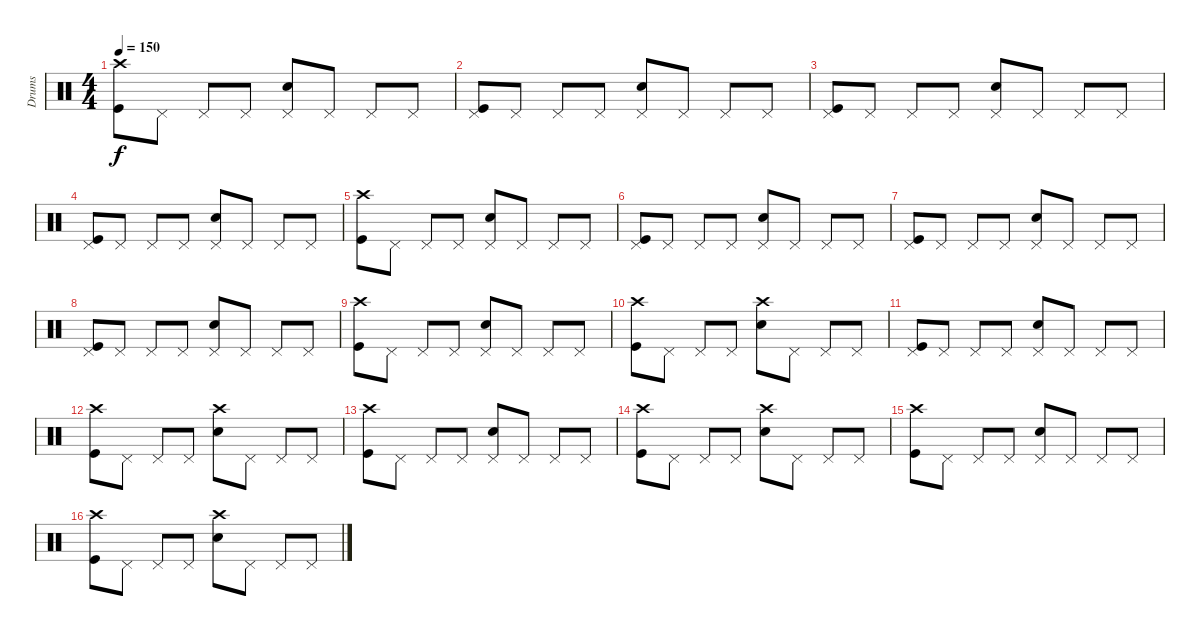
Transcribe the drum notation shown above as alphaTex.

\track ("Drums" "Drums") {instrument percussion}
\staff {score}
\articulation defaults
\ts (4 4)
\tempo 150
\clef neutral
\ks c
("Crash high (hit)" "Kick (hit)").8{dy f} "Pedal Hi-Hat (hit)".8 "Pedal Hi-Hat (hit)".8 "Pedal Hi-Hat (hit)".8 ("Pedal Hi-Hat (hit)" "Snare (hit) 2").8 "Pedal Hi-Hat (hit)".8 "Pedal Hi-Hat (hit)".8 "Pedal Hi-Hat (hit)".8 |
("Pedal Hi-Hat (hit)" "Kick (hit)").8 "Pedal Hi-Hat (hit)".8 "Pedal Hi-Hat (hit)".8 "Pedal Hi-Hat (hit)".8 ("Pedal Hi-Hat (hit)" "Snare (hit) 2").8 "Pedal Hi-Hat (hit)".8 "Pedal Hi-Hat (hit)".8 "Pedal Hi-Hat (hit)".8 |
("Pedal Hi-Hat (hit)" "Kick (hit)").8 "Pedal Hi-Hat (hit)".8 "Pedal Hi-Hat (hit)".8 "Pedal Hi-Hat (hit)".8 ("Pedal Hi-Hat (hit)" "Snare (hit) 2").8 "Pedal Hi-Hat (hit)".8 "Pedal Hi-Hat (hit)".8 "Pedal Hi-Hat (hit)".8 |
("Pedal Hi-Hat (hit)" "Kick (hit)").8 "Pedal Hi-Hat (hit)".8 "Pedal Hi-Hat (hit)".8 "Pedal Hi-Hat (hit)".8 ("Pedal Hi-Hat (hit)" "Snare (hit) 2").8 "Pedal Hi-Hat (hit)".8 "Pedal Hi-Hat (hit)".8 "Pedal Hi-Hat (hit)".8 |
("Crash high (hit)" "Kick (hit)").8 "Pedal Hi-Hat (hit)".8 "Pedal Hi-Hat (hit)".8 "Pedal Hi-Hat (hit)".8 ("Pedal Hi-Hat (hit)" "Snare (hit) 2").8 "Pedal Hi-Hat (hit)".8 "Pedal Hi-Hat (hit)".8 "Pedal Hi-Hat (hit)".8 |
("Pedal Hi-Hat (hit)" "Kick (hit)").8 "Pedal Hi-Hat (hit)".8 "Pedal Hi-Hat (hit)".8 "Pedal Hi-Hat (hit)".8 ("Pedal Hi-Hat (hit)" "Snare (hit) 2").8 "Pedal Hi-Hat (hit)".8 "Pedal Hi-Hat (hit)".8 "Pedal Hi-Hat (hit)".8 |
("Pedal Hi-Hat (hit)" "Kick (hit)").8 "Pedal Hi-Hat (hit)".8 "Pedal Hi-Hat (hit)".8 "Pedal Hi-Hat (hit)".8 ("Pedal Hi-Hat (hit)" "Snare (hit) 2").8 "Pedal Hi-Hat (hit)".8 "Pedal Hi-Hat (hit)".8 "Pedal Hi-Hat (hit)".8 |
("Pedal Hi-Hat (hit)" "Kick (hit)").8 "Pedal Hi-Hat (hit)".8 "Pedal Hi-Hat (hit)".8 "Pedal Hi-Hat (hit)".8 ("Pedal Hi-Hat (hit)" "Snare (hit) 2").8 "Pedal Hi-Hat (hit)".8 "Pedal Hi-Hat (hit)".8 "Pedal Hi-Hat (hit)".8 |
("Crash high (hit)" "Kick (hit)").8 "Pedal Hi-Hat (hit)".8 "Pedal Hi-Hat (hit)".8 "Pedal Hi-Hat (hit)".8 ("Pedal Hi-Hat (hit)" "Snare (hit) 2").8 "Pedal Hi-Hat (hit)".8 "Pedal Hi-Hat (hit)".8 "Pedal Hi-Hat (hit)".8 |
("Crash high (hit)" "Kick (hit)").8 "Pedal Hi-Hat (hit)".8 "Pedal Hi-Hat (hit)".8 "Pedal Hi-Hat (hit)".8 ("Crash high (hit)" "Snare (hit) 2").8 "Pedal Hi-Hat (hit)".8 "Pedal Hi-Hat (hit)".8 "Pedal Hi-Hat (hit)".8 |
("Pedal Hi-Hat (hit)" "Kick (hit)").8 "Pedal Hi-Hat (hit)".8 "Pedal Hi-Hat (hit)".8 "Pedal Hi-Hat (hit)".8 ("Pedal Hi-Hat (hit)" "Snare (hit) 2").8 "Pedal Hi-Hat (hit)".8 "Pedal Hi-Hat (hit)".8 "Pedal Hi-Hat (hit)".8 |
("Crash high (hit)" "Kick (hit)").8 "Pedal Hi-Hat (hit)".8 "Pedal Hi-Hat (hit)".8 "Pedal Hi-Hat (hit)".8 ("Crash high (hit)" "Snare (hit) 2").8 "Pedal Hi-Hat (hit)".8 "Pedal Hi-Hat (hit)".8 "Pedal Hi-Hat (hit)".8 |
("Crash high (hit)" "Kick (hit)").8 "Pedal Hi-Hat (hit)".8 "Pedal Hi-Hat (hit)".8 "Pedal Hi-Hat (hit)".8 ("Pedal Hi-Hat (hit)" "Snare (hit) 2").8 "Pedal Hi-Hat (hit)".8 "Pedal Hi-Hat (hit)".8 "Pedal Hi-Hat (hit)".8 |
("Crash high (hit)" "Kick (hit)").8 "Pedal Hi-Hat (hit)".8 "Pedal Hi-Hat (hit)".8 "Pedal Hi-Hat (hit)".8 ("Crash high (hit)" "Snare (hit) 2").8 "Pedal Hi-Hat (hit)".8 "Pedal Hi-Hat (hit)".8 "Pedal Hi-Hat (hit)".8 |
("Crash high (hit)" "Kick (hit)").8 "Pedal Hi-Hat (hit)".8 "Pedal Hi-Hat (hit)".8 "Pedal Hi-Hat (hit)".8 ("Pedal Hi-Hat (hit)" "Snare (hit) 2").8 "Pedal Hi-Hat (hit)".8 "Pedal Hi-Hat (hit)".8 "Pedal Hi-Hat (hit)".8 |
("Crash high (hit)" "Kick (hit)").8 "Pedal Hi-Hat (hit)".8 "Pedal Hi-Hat (hit)".8 "Pedal Hi-Hat (hit)".8 ("Crash high (hit)" "Snare (hit) 2").8 "Pedal Hi-Hat (hit)".8 "Pedal Hi-Hat (hit)".8 "Pedal Hi-Hat (hit)".8
